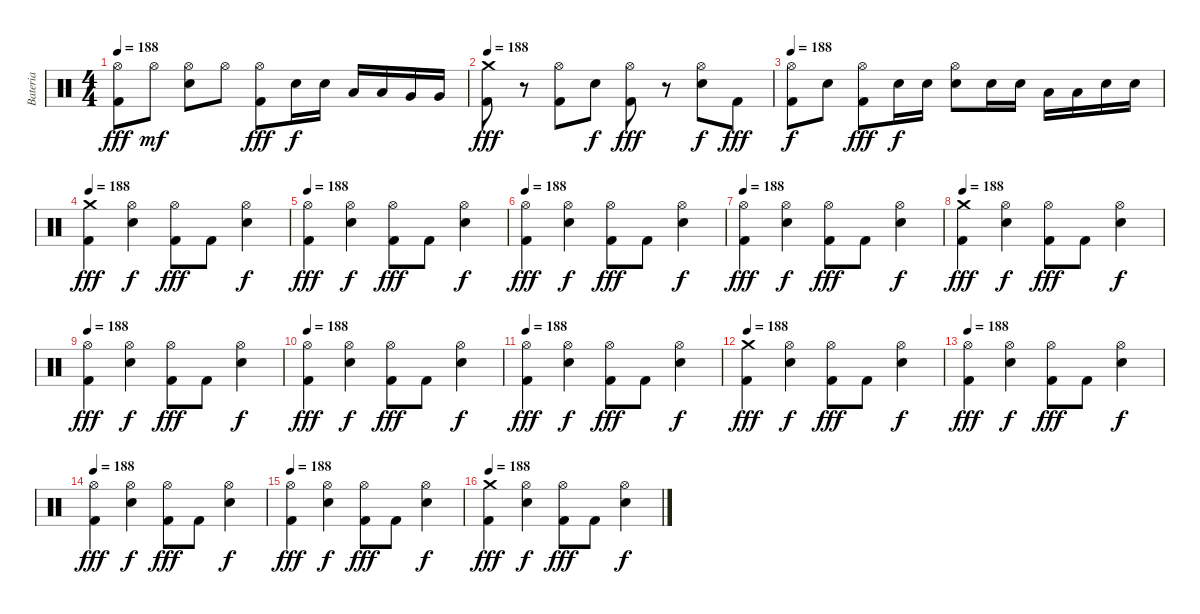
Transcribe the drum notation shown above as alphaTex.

\track ("Bateria" "Bateria") {instrument percussion}
\staff {score}
\articulation defaults
\ts (4 4)
\tempo 188
\clef neutral
\ks c
("Hi-Hat (open)" "Kick (hit) 2").8{dy fff} "Hi-Hat (open)".8{dy mf} ("Hi-Hat (open)" "Electric Snare (hit)").8 "Hi-Hat (open)".8 ("Hi-Hat (open)" "Kick (hit) 2").8{dy fff} "Electric Snare (hit)".16{dy f} "Electric Snare (hit)".16 "Low Tom (hit)".16 "Low Tom (hit)".16 "Very Low Tom (hit)".16 "Very Low Tom (hit)".16 |
\tempo 188
("Crash medium (hit)" "Kick (hit) 2").8{dy fff} r.8 ("Hi-Hat (open)" "Kick (hit) 2").8 "Electric Snare (hit)".8{dy f} ("Hi-Hat (open)" "Kick (hit) 2").8{dy fff} r.8 ("Hi-Hat (open)" "Electric Snare (hit)").8{dy f} "Kick (hit) 2".8{dy fff} |
\tempo 188
("Hi-Hat (open)" "Kick (hit) 2").8{dy f} "Electric Snare (hit)".8 ("Hi-Hat (open)" "Kick (hit) 2").8{dy fff} "Electric Snare (hit)".16{dy f} "Electric Snare (hit)".16 ("Hi-Hat (open)" "Electric Snare (hit)").8 "Electric Snare (hit)".16 "Electric Snare (hit)".16 "Low Tom (hit)".16 "Low Tom (hit)".16 "Electric Snare (hit)".16 "Electric Snare (hit)".16 |
\tempo 188
("Crash medium (hit)" "Kick (hit) 2").4{dy fff} ("Hi-Hat (open)" "Electric Snare (hit)").4{dy f} ("Hi-Hat (open)" "Kick (hit) 2").8{dy fff} "Kick (hit) 2".8 ("Hi-Hat (open)" "Electric Snare (hit)").4{dy f} |
\tempo 188
("Hi-Hat (open)" "Kick (hit) 2").4{dy fff} ("Hi-Hat (open)" "Electric Snare (hit)").4{dy f} ("Hi-Hat (open)" "Kick (hit) 2").8{dy fff} "Kick (hit) 2".8 ("Hi-Hat (open)" "Electric Snare (hit)").4{dy f} |
\tempo 188
("Hi-Hat (open)" "Kick (hit) 2").4{dy fff} ("Hi-Hat (open)" "Electric Snare (hit)").4{dy f} ("Hi-Hat (open)" "Kick (hit) 2").8{dy fff} "Kick (hit) 2".8 ("Hi-Hat (open)" "Electric Snare (hit)").4{dy f} |
\tempo 188
("Hi-Hat (open)" "Kick (hit) 2").4{dy fff} ("Hi-Hat (open)" "Electric Snare (hit)").4{dy f} ("Hi-Hat (open)" "Kick (hit) 2").8{dy fff} "Kick (hit) 2".8 ("Hi-Hat (open)" "Electric Snare (hit)").4{dy f} |
\tempo 188
("Crash medium (hit)" "Kick (hit) 2").4{dy fff} ("Hi-Hat (open)" "Electric Snare (hit)").4{dy f} ("Hi-Hat (open)" "Kick (hit) 2").8{dy fff} "Kick (hit) 2".8 ("Hi-Hat (open)" "Electric Snare (hit)").4{dy f} |
\tempo 188
("Hi-Hat (open)" "Kick (hit) 2").4{dy fff} ("Hi-Hat (open)" "Electric Snare (hit)").4{dy f} ("Hi-Hat (open)" "Kick (hit) 2").8{dy fff} "Kick (hit) 2".8 ("Hi-Hat (open)" "Electric Snare (hit)").4{dy f} |
\tempo 188
("Hi-Hat (open)" "Kick (hit) 2").4{dy fff} ("Hi-Hat (open)" "Electric Snare (hit)").4{dy f} ("Hi-Hat (open)" "Kick (hit) 2").8{dy fff} "Kick (hit) 2".8 ("Hi-Hat (open)" "Electric Snare (hit)").4{dy f} |
\tempo 188
("Hi-Hat (open)" "Kick (hit) 2").4{dy fff} ("Hi-Hat (open)" "Electric Snare (hit)").4{dy f} ("Hi-Hat (open)" "Kick (hit) 2").8{dy fff} "Kick (hit) 2".8 ("Hi-Hat (open)" "Electric Snare (hit)").4{dy f} |
\tempo 188
("Crash medium (hit)" "Kick (hit) 2").4{dy fff} ("Hi-Hat (open)" "Electric Snare (hit)").4{dy f} ("Hi-Hat (open)" "Kick (hit) 2").8{dy fff} "Kick (hit) 2".8 ("Hi-Hat (open)" "Electric Snare (hit)").4{dy f} |
\tempo 188
("Hi-Hat (open)" "Kick (hit) 2").4{dy fff} ("Hi-Hat (open)" "Electric Snare (hit)").4{dy f} ("Hi-Hat (open)" "Kick (hit) 2").8{dy fff} "Kick (hit) 2".8 ("Hi-Hat (open)" "Electric Snare (hit)").4{dy f} |
\tempo 188
("Hi-Hat (open)" "Kick (hit) 2").4{dy fff} ("Hi-Hat (open)" "Electric Snare (hit)").4{dy f} ("Hi-Hat (open)" "Kick (hit) 2").8{dy fff} "Kick (hit) 2".8 ("Hi-Hat (open)" "Electric Snare (hit)").4{dy f} |
\tempo 188
("Hi-Hat (open)" "Kick (hit) 2").4{dy fff} ("Hi-Hat (open)" "Electric Snare (hit)").4{dy f} ("Hi-Hat (open)" "Kick (hit) 2").8{dy fff} "Kick (hit) 2".8 ("Hi-Hat (open)" "Electric Snare (hit)").4{dy f} |
\tempo 188
("Crash medium (hit)" "Kick (hit) 2").4{dy fff} ("Hi-Hat (open)" "Electric Snare (hit)").4{dy f} ("Hi-Hat (open)" "Kick (hit) 2").8{dy fff} "Kick (hit) 2".8 ("Hi-Hat (open)" "Electric Snare (hit)").4{dy f}
